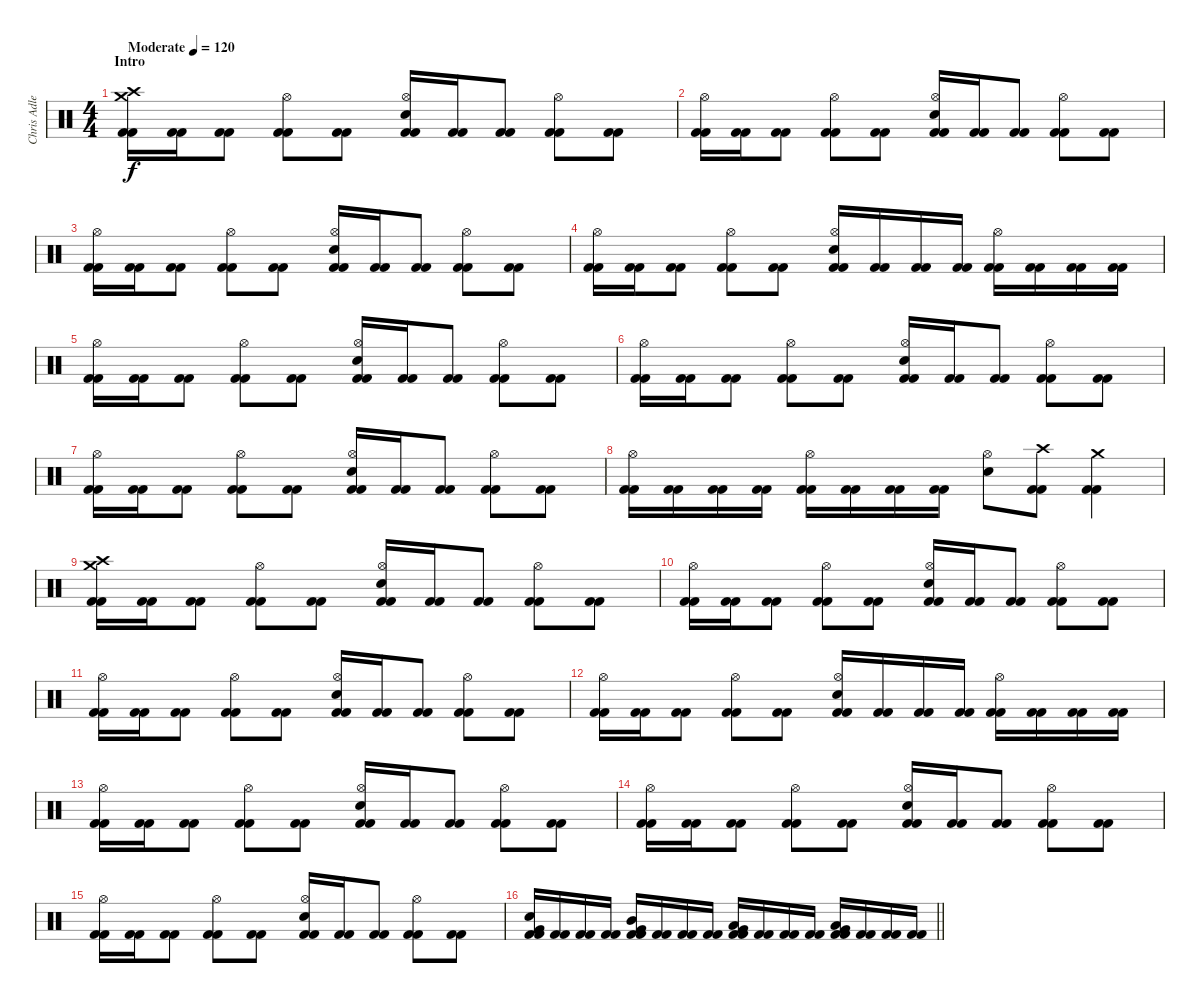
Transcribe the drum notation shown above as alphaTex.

\track ("Chris Adler" "Chris Adle") {instrument percussion}
\staff {score}
\articulation defaults
\ts (4 4)
\section ("" "Intro")
\tempo (120 "Moderate")
\clef neutral
\ks c
("Crash medium (hit)" "Crash high (hit)" "Kick (hit) 2" "Kick (hit) 2").16{dy f} ("Kick (hit) 2" "Kick (hit) 2").16 ("Kick (hit) 2" "Kick (hit) 2").8 ("Hi-Hat (open)" "Kick (hit) 2" "Kick (hit) 2").8 ("Kick (hit) 2" "Kick (hit) 2").8 ("Hi-Hat (open)" "Electric Snare (hit)" "Kick (hit) 2" "Kick (hit) 2").16 ("Kick (hit) 2" "Kick (hit) 2").16 ("Kick (hit) 2" "Kick (hit) 2").8 ("Hi-Hat (open)" "Kick (hit) 2" "Kick (hit) 2").8 ("Kick (hit) 2" "Kick (hit) 2").8 |
("Hi-Hat (open)" "Kick (hit) 2" "Kick (hit) 2").16 ("Kick (hit) 2" "Kick (hit) 2").16 ("Kick (hit) 2" "Kick (hit) 2").8 ("Hi-Hat (open)" "Kick (hit) 2" "Kick (hit) 2").8 ("Kick (hit) 2" "Kick (hit) 2").8 ("Hi-Hat (open)" "Electric Snare (hit)" "Kick (hit) 2" "Kick (hit) 2").16 ("Kick (hit) 2" "Kick (hit) 2").16 ("Kick (hit) 2" "Kick (hit) 2").8 ("Hi-Hat (open)" "Kick (hit) 2" "Kick (hit) 2").8 ("Kick (hit) 2" "Kick (hit) 2").8 |
("Hi-Hat (open)" "Kick (hit) 2" "Kick (hit) 2").16 ("Kick (hit) 2" "Kick (hit) 2").16 ("Kick (hit) 2" "Kick (hit) 2").8 ("Hi-Hat (open)" "Kick (hit) 2" "Kick (hit) 2").8 ("Kick (hit) 2" "Kick (hit) 2").8 ("Hi-Hat (open)" "Electric Snare (hit)" "Kick (hit) 2" "Kick (hit) 2").16 ("Kick (hit) 2" "Kick (hit) 2").16 ("Kick (hit) 2" "Kick (hit) 2").8 ("Hi-Hat (open)" "Kick (hit) 2" "Kick (hit) 2").8 ("Kick (hit) 2" "Kick (hit) 2").8 |
("Hi-Hat (open)" "Kick (hit) 2" "Kick (hit) 2").16 ("Kick (hit) 2" "Kick (hit) 2").16 ("Kick (hit) 2" "Kick (hit) 2").8 ("Hi-Hat (open)" "Kick (hit) 2" "Kick (hit) 2").8 ("Kick (hit) 2" "Kick (hit) 2").8 ("Hi-Hat (open)" "Electric Snare (hit)" "Kick (hit) 2" "Kick (hit) 2").16 ("Kick (hit) 2" "Kick (hit) 2").16 ("Kick (hit) 2" "Kick (hit) 2").16 ("Kick (hit) 2" "Kick (hit) 2").16 ("Hi-Hat (open)" "Kick (hit) 2" "Kick (hit) 2").16 ("Kick (hit) 2" "Kick (hit) 2").16 ("Kick (hit) 2" "Kick (hit) 2").16 ("Kick (hit) 2" "Kick (hit) 2").16 |
("Hi-Hat (open)" "Kick (hit) 2" "Kick (hit) 2").16 ("Kick (hit) 2" "Kick (hit) 2").16 ("Kick (hit) 2" "Kick (hit) 2").8 ("Hi-Hat (open)" "Kick (hit) 2" "Kick (hit) 2").8 ("Kick (hit) 2" "Kick (hit) 2").8 ("Hi-Hat (open)" "Electric Snare (hit)" "Kick (hit) 2" "Kick (hit) 2").16 ("Kick (hit) 2" "Kick (hit) 2").16 ("Kick (hit) 2" "Kick (hit) 2").8 ("Hi-Hat (open)" "Kick (hit) 2" "Kick (hit) 2").8 ("Kick (hit) 2" "Kick (hit) 2").8 |
("Hi-Hat (open)" "Kick (hit) 2" "Kick (hit) 2").16 ("Kick (hit) 2" "Kick (hit) 2").16 ("Kick (hit) 2" "Kick (hit) 2").8 ("Hi-Hat (open)" "Kick (hit) 2" "Kick (hit) 2").8 ("Kick (hit) 2" "Kick (hit) 2").8 ("Hi-Hat (open)" "Electric Snare (hit)" "Kick (hit) 2" "Kick (hit) 2").16 ("Kick (hit) 2" "Kick (hit) 2").16 ("Kick (hit) 2" "Kick (hit) 2").8 ("Hi-Hat (open)" "Kick (hit) 2" "Kick (hit) 2").8 ("Kick (hit) 2" "Kick (hit) 2").8 |
("Hi-Hat (open)" "Kick (hit) 2" "Kick (hit) 2").16 ("Kick (hit) 2" "Kick (hit) 2").16 ("Kick (hit) 2" "Kick (hit) 2").8 ("Hi-Hat (open)" "Kick (hit) 2" "Kick (hit) 2").8 ("Kick (hit) 2" "Kick (hit) 2").8 ("Hi-Hat (open)" "Electric Snare (hit)" "Kick (hit) 2" "Kick (hit) 2").16 ("Kick (hit) 2" "Kick (hit) 2").16 ("Kick (hit) 2" "Kick (hit) 2").8 ("Hi-Hat (open)" "Kick (hit) 2" "Kick (hit) 2").8 ("Kick (hit) 2" "Kick (hit) 2").8 |
("Hi-Hat (open)" "Kick (hit) 2" "Kick (hit) 2").16 ("Kick (hit) 2" "Kick (hit) 2").16 ("Kick (hit) 2" "Kick (hit) 2").16 ("Kick (hit) 2" "Kick (hit) 2").16 ("Hi-Hat (open)" "Kick (hit) 2" "Kick (hit) 2").16 ("Kick (hit) 2" "Kick (hit) 2").16 ("Kick (hit) 2" "Kick (hit) 2").16 ("Kick (hit) 2" "Kick (hit) 2").16 ("Hi-Hat (open)" "Electric Snare (hit)").8 ("Crash high (hit)" "Kick (hit) 2" "Kick (hit) 2").8 ("Crash medium (hit)" "Kick (hit) 2" "Kick (hit) 2").4 |
("Crash medium (hit)" "Crash high (hit)" "Kick (hit) 2" "Kick (hit) 2").16 ("Kick (hit) 2" "Kick (hit) 2").16 ("Kick (hit) 2" "Kick (hit) 2").8 ("Hi-Hat (open)" "Kick (hit) 2" "Kick (hit) 2").8 ("Kick (hit) 2" "Kick (hit) 2").8 ("Hi-Hat (open)" "Electric Snare (hit)" "Kick (hit) 2" "Kick (hit) 2").16 ("Kick (hit) 2" "Kick (hit) 2").16 ("Kick (hit) 2" "Kick (hit) 2").8 ("Hi-Hat (open)" "Kick (hit) 2" "Kick (hit) 2").8 ("Kick (hit) 2" "Kick (hit) 2").8 |
("Hi-Hat (open)" "Kick (hit) 2" "Kick (hit) 2").16 ("Kick (hit) 2" "Kick (hit) 2").16 ("Kick (hit) 2" "Kick (hit) 2").8 ("Hi-Hat (open)" "Kick (hit) 2" "Kick (hit) 2").8 ("Kick (hit) 2" "Kick (hit) 2").8 ("Hi-Hat (open)" "Electric Snare (hit)" "Kick (hit) 2" "Kick (hit) 2").16 ("Kick (hit) 2" "Kick (hit) 2").16 ("Kick (hit) 2" "Kick (hit) 2").8 ("Hi-Hat (open)" "Kick (hit) 2" "Kick (hit) 2").8 ("Kick (hit) 2" "Kick (hit) 2").8 |
("Hi-Hat (open)" "Kick (hit) 2" "Kick (hit) 2").16 ("Kick (hit) 2" "Kick (hit) 2").16 ("Kick (hit) 2" "Kick (hit) 2").8 ("Hi-Hat (open)" "Kick (hit) 2" "Kick (hit) 2").8 ("Kick (hit) 2" "Kick (hit) 2").8 ("Hi-Hat (open)" "Electric Snare (hit)" "Kick (hit) 2" "Kick (hit) 2").16 ("Kick (hit) 2" "Kick (hit) 2").16 ("Kick (hit) 2" "Kick (hit) 2").8 ("Hi-Hat (open)" "Kick (hit) 2" "Kick (hit) 2").8 ("Kick (hit) 2" "Kick (hit) 2").8 |
("Hi-Hat (open)" "Kick (hit) 2" "Kick (hit) 2").16 ("Kick (hit) 2" "Kick (hit) 2").16 ("Kick (hit) 2" "Kick (hit) 2").8 ("Hi-Hat (open)" "Kick (hit) 2" "Kick (hit) 2").8 ("Kick (hit) 2" "Kick (hit) 2").8 ("Hi-Hat (open)" "Electric Snare (hit)" "Kick (hit) 2" "Kick (hit) 2").16 ("Kick (hit) 2" "Kick (hit) 2").16 ("Kick (hit) 2" "Kick (hit) 2").16 ("Kick (hit) 2" "Kick (hit) 2").16 ("Hi-Hat (open)" "Kick (hit) 2" "Kick (hit) 2").16 ("Kick (hit) 2" "Kick (hit) 2").16 ("Kick (hit) 2" "Kick (hit) 2").16 ("Kick (hit) 2" "Kick (hit) 2").16 |
("Hi-Hat (open)" "Kick (hit) 2" "Kick (hit) 2").16 ("Kick (hit) 2" "Kick (hit) 2").16 ("Kick (hit) 2" "Kick (hit) 2").8 ("Hi-Hat (open)" "Kick (hit) 2" "Kick (hit) 2").8 ("Kick (hit) 2" "Kick (hit) 2").8 ("Hi-Hat (open)" "Electric Snare (hit)" "Kick (hit) 2" "Kick (hit) 2").16 ("Kick (hit) 2" "Kick (hit) 2").16 ("Kick (hit) 2" "Kick (hit) 2").8 ("Hi-Hat (open)" "Kick (hit) 2" "Kick (hit) 2").8 ("Kick (hit) 2" "Kick (hit) 2").8 |
("Hi-Hat (open)" "Kick (hit) 2" "Kick (hit) 2").16 ("Kick (hit) 2" "Kick (hit) 2").16 ("Kick (hit) 2" "Kick (hit) 2").8 ("Hi-Hat (open)" "Kick (hit) 2" "Kick (hit) 2").8 ("Kick (hit) 2" "Kick (hit) 2").8 ("Hi-Hat (open)" "Electric Snare (hit)" "Kick (hit) 2" "Kick (hit) 2").16 ("Kick (hit) 2" "Kick (hit) 2").16 ("Kick (hit) 2" "Kick (hit) 2").8 ("Hi-Hat (open)" "Kick (hit) 2" "Kick (hit) 2").8 ("Kick (hit) 2" "Kick (hit) 2").8 |
("Hi-Hat (open)" "Kick (hit) 2" "Kick (hit) 2").16 ("Kick (hit) 2" "Kick (hit) 2").16 ("Kick (hit) 2" "Kick (hit) 2").8 ("Hi-Hat (open)" "Kick (hit) 2" "Kick (hit) 2").8 ("Kick (hit) 2" "Kick (hit) 2").8 ("Hi-Hat (open)" "Electric Snare (hit)" "Kick (hit) 2" "Kick (hit) 2").16 ("Kick (hit) 2" "Kick (hit) 2").16 ("Kick (hit) 2" "Kick (hit) 2").8 ("Hi-Hat (open)" "Kick (hit) 2" "Kick (hit) 2").8 ("Kick (hit) 2" "Kick (hit) 2").8 |
\barLineRight lightlight
("Electric Snare (hit)" "Very Low Tom (hit)" "Kick (hit) 2" "Kick (hit) 2").16 ("Kick (hit) 2" "Kick (hit) 2").16 ("Kick (hit) 2" "Kick (hit) 2").16 ("Kick (hit) 2" "Kick (hit) 2").16 ("Mid Tom (hit)" "Very Low Tom (hit)" "Kick (hit) 2" "Kick (hit) 2").16 ("Kick (hit) 2" "Kick (hit) 2").16 ("Kick (hit) 2" "Kick (hit) 2").16 ("Kick (hit) 2" "Kick (hit) 2").16 ("Low Tom (hit)" "Very Low Tom (hit)" "Kick (hit) 2" "Kick (hit) 2").16 ("Kick (hit) 2" "Kick (hit) 2").16 ("Kick (hit) 2" "Kick (hit) 2").16 ("Kick (hit) 2" "Kick (hit) 2").16 ("Very Low Tom (hit)" "Low Floor Tom (hit)" "Kick (hit) 2" "Kick (hit) 2").16 ("Kick (hit) 2" "Kick (hit) 2").16 ("Kick (hit) 2" "Kick (hit) 2").16 ("Kick (hit) 2" "Kick (hit) 2").16
